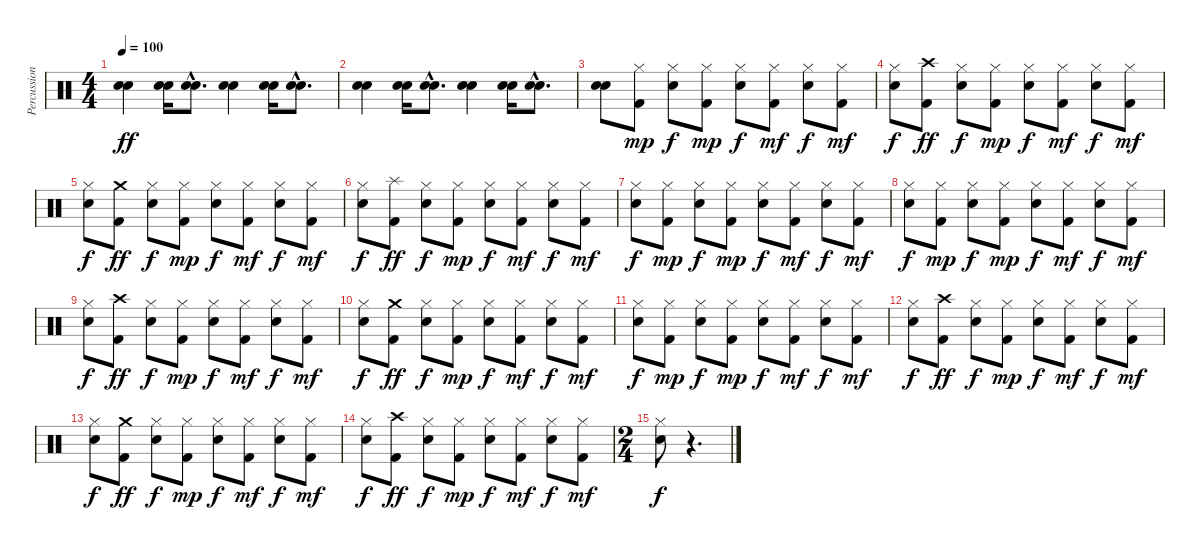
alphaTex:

\track ("Percussion" "Percussion") {instrument percussion}
\staff {score}
\articulation defaults
\ts (4 4)
\tempo 100
\clef neutral
\ks c
("Hand Clap (hit)" "Hand Clap (hit)").4{dy ff} ("Hand Clap (hit)" "Hand Clap (hit)").16 ("Hand Clap (hit)"{hac} "Hand Clap (hit)"{hac}).8{d} ("Hand Clap (hit)" "Hand Clap (hit)").4 ("Hand Clap (hit)" "Hand Clap (hit)").16 ("Hand Clap (hit)"{hac} "Hand Clap (hit)"{hac}).8{d} |
("Hand Clap (hit)" "Hand Clap (hit)").4 ("Hand Clap (hit)" "Hand Clap (hit)").16 ("Hand Clap (hit)"{hac} "Hand Clap (hit)"{hac}).8{d} ("Hand Clap (hit)" "Hand Clap (hit)").4 ("Hand Clap (hit)" "Hand Clap (hit)").16 ("Hand Clap (hit)"{hac} "Hand Clap (hit)"{hac}).8{d} |
("Hand Clap (hit)" "Hand Clap (hit)").8 ("Hi-Hat (closed)" "Kick (hit) 2").8{dy mp} ("Hi-Hat (closed)" "Electric Snare (hit)").8{dy f} ("Hi-Hat (closed)" "Kick (hit) 2").8{dy mp} ("Hi-Hat (closed)" "Electric Snare (hit)").8{dy f} ("Hi-Hat (closed)" "Kick (hit) 2").8{dy mf} ("Hi-Hat (closed)" "Electric Snare (hit)").8{dy f} ("Hi-Hat (closed)" "Kick (hit) 2").8{dy mf} |
("Hi-Hat (closed)" "Electric Snare (hit)").8{dy f} ("Crash high (hit)" "Kick (hit) 2").8{dy ff} ("Hi-Hat (closed)" "Electric Snare (hit)").8{dy f} ("Hi-Hat (closed)" "Kick (hit) 2").8{dy mp} ("Hi-Hat (closed)" "Electric Snare (hit)").8{dy f} ("Hi-Hat (closed)" "Kick (hit) 2").8{dy mf} ("Hi-Hat (closed)" "Electric Snare (hit)").8{dy f} ("Hi-Hat (closed)" "Kick (hit) 2").8{dy mf} |
("Hi-Hat (closed)" "Electric Snare (hit)").8{dy f} ("Crash medium (hit)" "Kick (hit) 2").8{dy ff} ("Hi-Hat (closed)" "Electric Snare (hit)").8{dy f} ("Hi-Hat (closed)" "Kick (hit) 2").8{dy mp} ("Hi-Hat (closed)" "Electric Snare (hit)").8{dy f} ("Hi-Hat (closed)" "Kick (hit) 2").8{dy mf} ("Hi-Hat (closed)" "Electric Snare (hit)").8{dy f} ("Hi-Hat (closed)" "Kick (hit) 2").8{dy mf} |
("Hi-Hat (closed)" "Electric Snare (hit)").8{dy f} ("Splash (hit)" "Kick (hit) 2").8{dy ff} ("Hi-Hat (closed)" "Electric Snare (hit)").8{dy f} ("Hi-Hat (closed)" "Kick (hit) 2").8{dy mp} ("Hi-Hat (closed)" "Electric Snare (hit)").8{dy f} ("Hi-Hat (closed)" "Kick (hit) 2").8{dy mf} ("Hi-Hat (closed)" "Electric Snare (hit)").8{dy f} ("Hi-Hat (closed)" "Kick (hit) 2").8{dy mf} |
("Hi-Hat (closed)" "Electric Snare (hit)").8{dy f} ("Hi-Hat (closed)" "Kick (hit) 2").8{dy mp} ("Hi-Hat (closed)" "Electric Snare (hit)").8{dy f} ("Hi-Hat (closed)" "Kick (hit) 2").8{dy mp} ("Hi-Hat (closed)" "Electric Snare (hit)").8{dy f} ("Hi-Hat (closed)" "Kick (hit) 2").8{dy mf} ("Hi-Hat (closed)" "Electric Snare (hit)").8{dy f} ("Hi-Hat (closed)" "Kick (hit) 2").8{dy mf} |
("Hi-Hat (closed)" "Electric Snare (hit)").8{dy f} ("Hi-Hat (closed)" "Kick (hit) 2").8{dy mp} ("Hi-Hat (closed)" "Electric Snare (hit)").8{dy f} ("Hi-Hat (closed)" "Kick (hit) 2").8{dy mp} ("Hi-Hat (closed)" "Electric Snare (hit)").8{dy f} ("Hi-Hat (closed)" "Kick (hit) 2").8{dy mf} ("Hi-Hat (closed)" "Electric Snare (hit)").8{dy f} ("Hi-Hat (closed)" "Kick (hit) 2").8{dy mf} |
("Hi-Hat (closed)" "Electric Snare (hit)").8{dy f} ("Crash high (hit)" "Kick (hit) 2").8{dy ff} ("Hi-Hat (closed)" "Electric Snare (hit)").8{dy f} ("Hi-Hat (closed)" "Kick (hit) 2").8{dy mp} ("Hi-Hat (closed)" "Electric Snare (hit)").8{dy f} ("Hi-Hat (closed)" "Kick (hit) 2").8{dy mf} ("Hi-Hat (closed)" "Electric Snare (hit)").8{dy f} ("Hi-Hat (closed)" "Kick (hit) 2").8{dy mf} |
("Hi-Hat (closed)" "Electric Snare (hit)").8{dy f} ("Crash medium (hit)" "Kick (hit) 2").8{dy ff} ("Hi-Hat (closed)" "Electric Snare (hit)").8{dy f} ("Hi-Hat (closed)" "Kick (hit) 2").8{dy mp} ("Hi-Hat (closed)" "Electric Snare (hit)").8{dy f} ("Hi-Hat (closed)" "Kick (hit) 2").8{dy mf} ("Hi-Hat (closed)" "Electric Snare (hit)").8{dy f} ("Hi-Hat (closed)" "Kick (hit) 2").8{dy mf} |
("Hi-Hat (closed)" "Electric Snare (hit)").8{dy f} ("Hi-Hat (closed)" "Kick (hit) 2").8{dy mp} ("Hi-Hat (closed)" "Electric Snare (hit)").8{dy f} ("Hi-Hat (closed)" "Kick (hit) 2").8{dy mp} ("Hi-Hat (closed)" "Electric Snare (hit)").8{dy f} ("Hi-Hat (closed)" "Kick (hit) 2").8{dy mf} ("Hi-Hat (closed)" "Electric Snare (hit)").8{dy f} ("Hi-Hat (closed)" "Kick (hit) 2").8{dy mf} |
("Hi-Hat (closed)" "Electric Snare (hit)").8{dy f} ("Crash high (hit)" "Kick (hit) 2").8{dy ff} ("Hi-Hat (closed)" "Electric Snare (hit)").8{dy f} ("Hi-Hat (closed)" "Kick (hit) 2").8{dy mp} ("Hi-Hat (closed)" "Electric Snare (hit)").8{dy f} ("Hi-Hat (closed)" "Kick (hit) 2").8{dy mf} ("Hi-Hat (closed)" "Electric Snare (hit)").8{dy f} ("Hi-Hat (closed)" "Kick (hit) 2").8{dy mf} |
("Hi-Hat (closed)" "Electric Snare (hit)").8{dy f} ("Crash medium (hit)" "Kick (hit) 2").8{dy ff} ("Hi-Hat (closed)" "Electric Snare (hit)").8{dy f} ("Hi-Hat (closed)" "Kick (hit) 2").8{dy mp} ("Hi-Hat (closed)" "Electric Snare (hit)").8{dy f} ("Hi-Hat (closed)" "Kick (hit) 2").8{dy mf} ("Hi-Hat (closed)" "Electric Snare (hit)").8{dy f} ("Hi-Hat (closed)" "Kick (hit) 2").8{dy mf} |
("Hi-Hat (closed)" "Electric Snare (hit)").8{dy f} ("Crash high (hit)" "Kick (hit) 2").8{dy ff} ("Hi-Hat (closed)" "Electric Snare (hit)").8{dy f} ("Hi-Hat (closed)" "Kick (hit) 2").8{dy mp} ("Hi-Hat (closed)" "Electric Snare (hit)").8{dy f} ("Hi-Hat (closed)" "Kick (hit) 2").8{dy mf} ("Hi-Hat (closed)" "Electric Snare (hit)").8{dy f} ("Hi-Hat (closed)" "Kick (hit) 2").8{dy mf} |
\ts (2 4)
("Hi-Hat (closed)" "Electric Snare (hit)").8{dy f} r.4{d}
